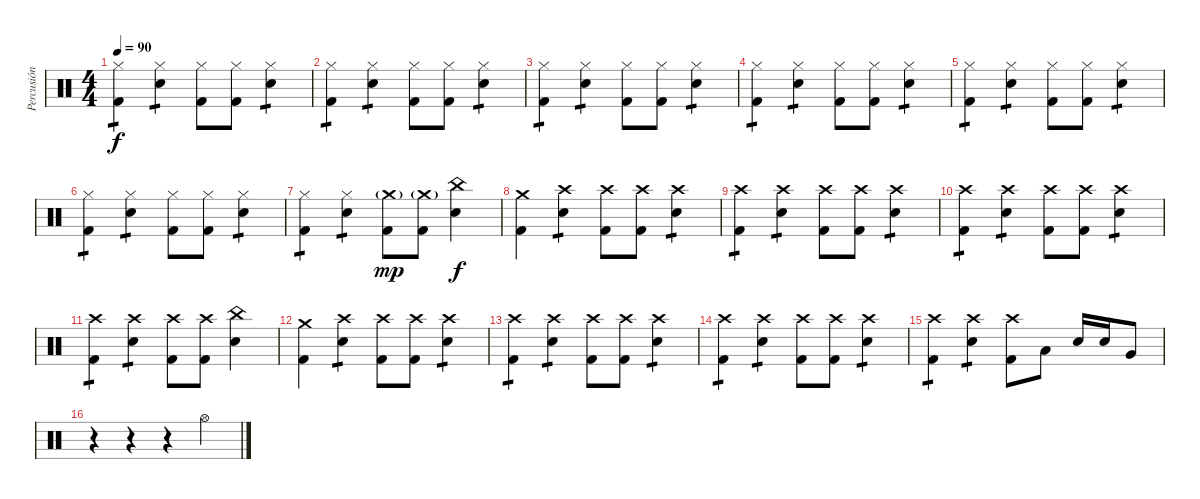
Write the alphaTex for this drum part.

\track ("Percusión" "Percusión") {instrument percussion}
\staff {score}
\articulation defaults
\ts (4 4)
\tempo 90
\clef neutral
\ks c
("Hi-Hat (closed)" "Kick (hit) 2").4{tp 1 dy f} ("Hi-Hat (closed)" "Snare (hit) 2").4{tp 1} ("Hi-Hat (closed)" "Kick (hit) 2").8 ("Hi-Hat (closed)" "Kick (hit) 2").8 ("Hi-Hat (closed)" "Snare (hit) 2").4{tp 1} |
("Hi-Hat (closed)" "Kick (hit) 2").4{tp 1} ("Hi-Hat (closed)" "Snare (hit) 2").4{tp 1} ("Hi-Hat (closed)" "Kick (hit) 2").8 ("Hi-Hat (closed)" "Kick (hit) 2").8 ("Hi-Hat (closed)" "Snare (hit) 2").4{tp 1} |
("Hi-Hat (closed)" "Kick (hit) 2").4{tp 1} ("Hi-Hat (closed)" "Snare (hit) 2").4{tp 1} ("Hi-Hat (closed)" "Kick (hit) 2").8 ("Hi-Hat (closed)" "Kick (hit) 2").8 ("Hi-Hat (closed)" "Snare (hit) 2").4{tp 1} |
("Hi-Hat (closed)" "Kick (hit) 2").4{tp 1} ("Hi-Hat (closed)" "Snare (hit) 2").4{tp 1} ("Hi-Hat (closed)" "Kick (hit) 2").8 ("Hi-Hat (closed)" "Kick (hit) 2").8 ("Hi-Hat (closed)" "Snare (hit) 2").4{tp 1} |
("Hi-Hat (closed)" "Kick (hit) 2").4{tp 1} ("Hi-Hat (closed)" "Snare (hit) 2").4{tp 1} ("Hi-Hat (closed)" "Kick (hit) 2").8 ("Hi-Hat (closed)" "Kick (hit) 2").8 ("Hi-Hat (closed)" "Snare (hit) 2").4{tp 1} |
("Hi-Hat (closed)" "Kick (hit) 2").4{tp 1} ("Hi-Hat (closed)" "Snare (hit) 2").4{tp 1} ("Hi-Hat (closed)" "Kick (hit) 2").8 ("Hi-Hat (closed)" "Kick (hit) 2").8 ("Hi-Hat (closed)" "Snare (hit) 2").4{tp 1} |
("Hi-Hat (closed)" "Kick (hit) 2").4{tp 1} ("Hi-Hat (closed)" "Snare (hit) 2").4{tp 1} ("Crash medium (hit)"{g} "Kick (hit) 2").8{dy mp} ("Crash medium (hit)"{g} "Kick (hit) 2").8 ("China (hit)" "Snare (hit) 2").4{dy f} |
("Crash medium (hit)" "Kick (hit) 2").4 ("Crash high (hit)" "Snare (hit) 2").4{tp 1} ("Crash high (hit)" "Kick (hit) 2").8 ("Crash high (hit)" "Kick (hit) 2").8 ("Crash high (hit)" "Snare (hit) 2").4{tp 1} |
("Crash high (hit)" "Kick (hit) 2").4{tp 1} ("Crash high (hit)" "Snare (hit) 2").4{tp 1} ("Crash high (hit)" "Kick (hit) 2").8 ("Crash high (hit)" "Kick (hit) 2").8 ("Crash high (hit)" "Snare (hit) 2").4{tp 1} |
("Crash high (hit)" "Kick (hit) 2").4{tp 1} ("Crash high (hit)" "Snare (hit) 2").4{tp 1} ("Crash high (hit)" "Kick (hit) 2").8 ("Crash high (hit)" "Kick (hit) 2").8 ("Crash high (hit)" "Snare (hit) 2").4{tp 1} |
("Crash high (hit)" "Kick (hit) 2").4{tp 1} ("Crash high (hit)" "Snare (hit) 2").4{tp 1} ("Crash high (hit)" "Kick (hit) 2").8 ("Crash high (hit)" "Kick (hit) 2").8 ("China (hit)" "Snare (hit) 2").4 |
("Crash medium (hit)" "Kick (hit) 2").4 ("Crash high (hit)" "Snare (hit) 2").4{tp 1} ("Crash high (hit)" "Kick (hit) 2").8 ("Crash high (hit)" "Kick (hit) 2").8 ("Crash high (hit)" "Snare (hit) 2").4{tp 1} |
("Crash high (hit)" "Kick (hit) 2").4{tp 1} ("Crash high (hit)" "Snare (hit) 2").4{tp 1} ("Crash high (hit)" "Kick (hit) 2").8 ("Crash high (hit)" "Kick (hit) 2").8 ("Crash high (hit)" "Snare (hit) 2").4{tp 1} |
("Crash high (hit)" "Kick (hit) 2").4{tp 1} ("Crash high (hit)" "Snare (hit) 2").4{tp 1} ("Crash high (hit)" "Kick (hit) 2").8 ("Crash high (hit)" "Kick (hit) 2").8 ("Crash high (hit)" "Snare (hit) 2").4{tp 1} |
("Crash high (hit)" "Kick (hit) 2").4{tp 1} ("Crash high (hit)" "Snare (hit) 2").4{tp 1} ("Crash high (hit)" "Kick (hit) 2").8 "Low Tom (hit)".8 "Electric Snare (hit)".16 "Electric Snare (hit)".16 "Very Low Tom (hit)".8 |
r.4 r.4 r.4 "Hi-Hat (open)".4
